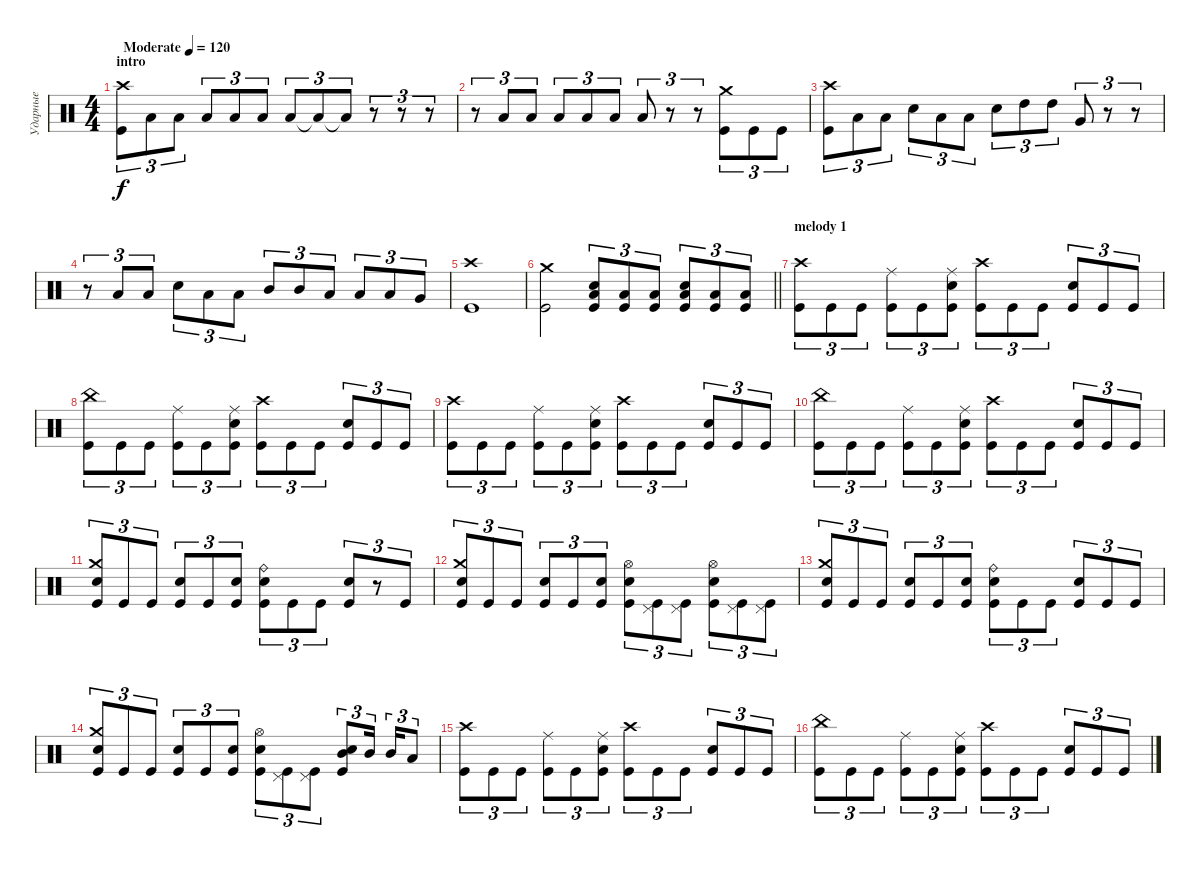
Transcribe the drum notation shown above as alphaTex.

\track ("Ударные" "Ударные") {instrument percussion}
\staff {score}
\articulation defaults
\ts (4 4)
\section ("" "intro")
\tempo (120 "Moderate")
\clef neutral
\ks c
("Crash high (hit)" "Kick (hit)").8{tu (3 2) dy f} "Low Floor Tom (hit)".8{tu (3 2)} "Low Floor Tom (hit)".8{tu (3 2)} "Low Floor Tom (hit)".8{tu (3 2)} "Low Floor Tom (hit)".8{tu (3 2)} "Low Floor Tom (hit)".8{tu (3 2)} "Low Floor Tom (hit)".8{tu (3 2)} "Low Floor Tom (hit)"{t}.8{tu (3 2)} "Low Floor Tom (hit)"{t}.8{tu (3 2)} r.8{tu (3 2)} r.8{tu (3 2)} r.8{tu (3 2)} |
r.8{tu (3 2)} "Low Floor Tom (hit)".8{tu (3 2)} "Low Floor Tom (hit)".8{tu (3 2)} "Low Floor Tom (hit)".8{tu (3 2)} "Low Floor Tom (hit)".8{tu (3 2)} "Low Floor Tom (hit)".8{tu (3 2)} "Low Floor Tom (hit)".8{tu (3 2)} r.8{tu (3 2)} r.8{tu (3 2)} ("Crash medium (hit)" "Kick (hit)").8{tu (3 2)} "Kick (hit)".8{tu (3 2)} "Kick (hit)".8{tu (3 2)} |
("Crash high (hit)" "Kick (hit)").8{tu (3 2)} "Low Floor Tom (hit)".8{tu (3 2)} "Low Floor Tom (hit)".8{tu (3 2)} "Electric Snare (hit)".8{tu (3 2)} "Low Floor Tom (hit)".8{tu (3 2)} "Low Floor Tom (hit)".8{tu (3 2)} "Electric Snare (hit)".8{tu (3 2)} "High Tom (hit)".8{tu (3 2)} "High Tom (hit)".8{tu (3 2)} "Very Low Tom (hit)".8{tu (3 2)} r.8{tu (3 2)} r.8{tu (3 2)} |
r.8{tu (3 2)} "Low Floor Tom (hit)".8{tu (3 2)} "Low Floor Tom (hit)".8{tu (3 2)} "Electric Snare (hit)".8{tu (3 2)} "Low Floor Tom (hit)".8{tu (3 2)} "Low Floor Tom (hit)".8{tu (3 2)} "Mid Tom (hit)".8{tu (3 2)} "Mid Tom (hit)".8{tu (3 2)} "Low Tom (hit)".8{tu (3 2)} "Low Tom (hit)".8{tu (3 2)} "Low Tom (hit)".8{tu (3 2)} "Very Low Tom (hit)".8{tu (3 2)} |
("Crash high (hit)" "Kick (hit)").1 |
\barLineRight lightlight
("Crash medium (hit)" "Kick (hit)").2 ("Low Floor Tom (hit)" "Electric Snare (hit)" "Kick (hit)").8{tu (3 2)} ("Low Floor Tom (hit)" "Kick (hit)").8{tu (3 2)} ("Low Floor Tom (hit)" "Kick (hit)").8{tu (3 2)} ("Low Floor Tom (hit)" "Electric Snare (hit)" "Kick (hit)").8{tu (3 2)} ("Low Floor Tom (hit)" "Kick (hit)").8{tu (3 2)} ("Low Floor Tom (hit)" "Kick (hit)").8{tu (3 2)} |
\section ("" "melody 1")
("Crash high (hit)" "Kick (hit)").8{tu (3 2)} "Kick (hit)".8{tu (3 2)} "Kick (hit)".8{tu (3 2)} ("Ride (middle)" "Kick (hit)").8{tu (3 2)} "Kick (hit)".8{tu (3 2)} ("Ride (middle)" "Kick (hit)" "Electric Snare (hit)").8{tu (3 2)} ("Crash high (hit)" "Kick (hit)").8{tu (3 2)} "Kick (hit)".8{tu (3 2)} "Kick (hit)".8{tu (3 2)} ("Kick (hit)" "Electric Snare (hit)").8{tu (3 2)} "Kick (hit)".8{tu (3 2)} "Kick (hit)".8{tu (3 2)} |
("China (hit)" "Kick (hit)").8{tu (3 2)} "Kick (hit)".8{tu (3 2)} "Kick (hit)".8{tu (3 2)} ("Ride (middle)" "Kick (hit)").8{tu (3 2)} "Kick (hit)".8{tu (3 2)} ("Ride (middle)" "Kick (hit)" "Electric Snare (hit)").8{tu (3 2)} ("Crash high (hit)" "Kick (hit)").8{tu (3 2)} "Kick (hit)".8{tu (3 2)} "Kick (hit)".8{tu (3 2)} ("Kick (hit)" "Electric Snare (hit)").8{tu (3 2)} "Kick (hit)".8{tu (3 2)} "Kick (hit)".8{tu (3 2)} |
("Crash high (hit)" "Kick (hit)").8{tu (3 2)} "Kick (hit)".8{tu (3 2)} "Kick (hit)".8{tu (3 2)} ("Ride (middle)" "Kick (hit)").8{tu (3 2)} "Kick (hit)".8{tu (3 2)} ("Ride (middle)" "Kick (hit)" "Electric Snare (hit)").8{tu (3 2)} ("Crash high (hit)" "Kick (hit)").8{tu (3 2)} "Kick (hit)".8{tu (3 2)} "Kick (hit)".8{tu (3 2)} ("Kick (hit)" "Electric Snare (hit)").8{tu (3 2)} "Kick (hit)".8{tu (3 2)} "Kick (hit)".8{tu (3 2)} |
("China (hit)" "Kick (hit)").8{tu (3 2)} "Kick (hit)".8{tu (3 2)} "Kick (hit)".8{tu (3 2)} ("Ride (middle)" "Kick (hit)").8{tu (3 2)} "Kick (hit)".8{tu (3 2)} ("Ride (middle)" "Kick (hit)" "Electric Snare (hit)").8{tu (3 2)} ("Crash high (hit)" "Kick (hit)").8{tu (3 2)} "Kick (hit)".8{tu (3 2)} "Kick (hit)".8{tu (3 2)} ("Kick (hit)" "Electric Snare (hit)").8{tu (3 2)} "Kick (hit)".8{tu (3 2)} "Kick (hit)".8{tu (3 2)} |
("Crash medium (hit)" "Kick (hit)" "Electric Snare (hit)").8{tu (3 2)} "Kick (hit)".8{tu (3 2)} "Kick (hit)".8{tu (3 2)} ("Electric Snare (hit)" "Kick (hit)").8{tu (3 2)} "Kick (hit)".8{tu (3 2)} ("Kick (hit)" "Electric Snare (hit)").8{tu (3 2)} ("Ride (bell)" "Electric Snare (hit)" "Kick (hit)").8{tu (3 2)} "Kick (hit)".8{tu (3 2)} "Kick (hit)".8{tu (3 2)} ("Kick (hit)" "Electric Snare (hit)").8{tu (3 2)} r.8{tu (3 2)} "Kick (hit)".8{tu (3 2)} |
("Crash medium (hit)" "Kick (hit)" "Electric Snare (hit)").8{tu (3 2)} "Kick (hit)".8{tu (3 2)} "Kick (hit)".8{tu (3 2)} ("Electric Snare (hit)" "Kick (hit)").8{tu (3 2)} "Kick (hit)".8{tu (3 2)} ("Kick (hit)" "Electric Snare (hit)").8{tu (3 2)} ("Hi-Hat (open)" "Electric Snare (hit)" "Kick (hit)").8{tu (3 2)} ("Pedal Hi-Hat (hit)" "Kick (hit)").8{tu (3 2)} ("Pedal Hi-Hat (hit)" "Kick (hit)").8{tu (3 2)} ("Hi-Hat (open)" "Kick (hit)" "Electric Snare (hit)").8{tu (3 2)} ("Pedal Hi-Hat (hit)" "Kick (hit)").8{tu (3 2)} ("Pedal Hi-Hat (hit)" "Kick (hit)").8{tu (3 2)} |
("Crash medium (hit)" "Kick (hit)" "Electric Snare (hit)").8{tu (3 2)} "Kick (hit)".8{tu (3 2)} "Kick (hit)".8{tu (3 2)} ("Electric Snare (hit)" "Kick (hit)").8{tu (3 2)} "Kick (hit)".8{tu (3 2)} ("Kick (hit)" "Electric Snare (hit)").8{tu (3 2)} ("Ride (bell)" "Electric Snare (hit)" "Kick (hit)").8{tu (3 2)} "Kick (hit)".8{tu (3 2)} "Kick (hit)".8{tu (3 2)} ("Kick (hit)" "Electric Snare (hit)").8{tu (3 2)} "Kick (hit)".8{tu (3 2)} "Kick (hit)".8{tu (3 2)} |
("Crash medium (hit)" "Kick (hit)" "Electric Snare (hit)").8{tu (3 2)} "Kick (hit)".8{tu (3 2)} "Kick (hit)".8{tu (3 2)} ("Electric Snare (hit)" "Kick (hit)").8{tu (3 2)} "Kick (hit)".8{tu (3 2)} ("Kick (hit)" "Electric Snare (hit)").8{tu (3 2)} ("Hi-Hat (open)" "Electric Snare (hit)" "Kick (hit)").8{tu (3 2)} ("Pedal Hi-Hat (hit)" "Kick (hit)").8{tu (3 2)} ("Pedal Hi-Hat (hit)" "Kick (hit)").8{tu (3 2)} ("Mid Tom (hit)" "Kick (hit)" "Electric Snare (hit)").8{tu (3 2)} "Mid Tom (hit)".16{tu (3 2) beam splitsecondary} "Mid Tom (hit)".16{tu (3 2)} "Low Tom (hit)".8{tu (3 2)} |
("Crash high (hit)" "Kick (hit)").8{tu (3 2)} "Kick (hit)".8{tu (3 2)} "Kick (hit)".8{tu (3 2)} ("Ride (middle)" "Kick (hit)").8{tu (3 2)} "Kick (hit)".8{tu (3 2)} ("Ride (middle)" "Kick (hit)" "Electric Snare (hit)").8{tu (3 2)} ("Crash high (hit)" "Kick (hit)").8{tu (3 2)} "Kick (hit)".8{tu (3 2)} "Kick (hit)".8{tu (3 2)} ("Kick (hit)" "Electric Snare (hit)").8{tu (3 2)} "Kick (hit)".8{tu (3 2)} "Kick (hit)".8{tu (3 2)} |
("China (hit)" "Kick (hit)").8{tu (3 2)} "Kick (hit)".8{tu (3 2)} "Kick (hit)".8{tu (3 2)} ("Ride (middle)" "Kick (hit)").8{tu (3 2)} "Kick (hit)".8{tu (3 2)} ("Ride (middle)" "Kick (hit)" "Electric Snare (hit)").8{tu (3 2)} ("Crash high (hit)" "Kick (hit)").8{tu (3 2)} "Kick (hit)".8{tu (3 2)} "Kick (hit)".8{tu (3 2)} ("Kick (hit)" "Electric Snare (hit)").8{tu (3 2)} "Kick (hit)".8{tu (3 2)} "Kick (hit)".8{tu (3 2)}
